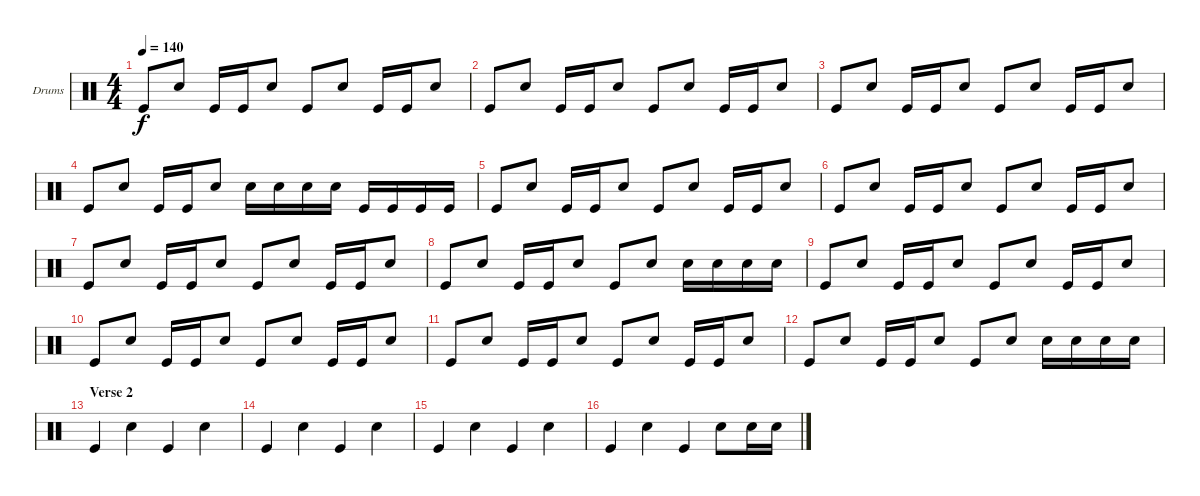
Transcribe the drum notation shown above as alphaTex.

\bracketExtendMode groupsimilarinstruments
\firstSystemTrackNameOrientation horizontal
\otherSystemsTrackNameOrientation horizontal
\track ("Drumkit" "Drums") {instrument percussion}
\staff {score}
\articulation defaults
\ts (4 4)
\tempo 140
\clef neutral
\ks c "Kick (hit)".8{dy f} "Snare (hit) 2".8 "Kick (hit)".16 "Kick (hit)".16 "Snare (hit) 2".8 "Kick (hit)".8 "Snare (hit) 2".8 "Kick (hit)".16 "Kick (hit)".16 "Snare (hit) 2".8
|
"Kick (hit)".8 "Snare (hit) 2".8 "Kick (hit)".16 "Kick (hit)".16 "Snare (hit) 2".8 "Kick (hit)".8 "Snare (hit) 2".8 "Kick (hit)".16 "Kick (hit)".16 "Snare (hit) 2".8 |
"Kick (hit)".8 "Snare (hit) 2".8 "Kick (hit)".16 "Kick (hit)".16 "Snare (hit) 2".8 "Kick (hit)".8 "Snare (hit) 2".8 "Kick (hit)".16 "Kick (hit)".16 "Snare (hit) 2".8 |
"Kick (hit)".8 "Snare (hit) 2".8 "Kick (hit)".16 "Kick (hit)".16 "Snare (hit) 2".8 "Snare (hit) 2".16 "Snare (hit) 2".16 "Snare (hit) 2".16 "Snare (hit) 2".16 "Kick (hit)".16 "Kick (hit)".16 "Kick (hit)".16 "Kick (hit)".16 |
"Kick (hit)".8 "Snare (hit) 2".8 "Kick (hit)".16 "Kick (hit)".16 "Snare (hit) 2".8 "Kick (hit)".8 "Snare (hit) 2".8 "Kick (hit)".16 "Kick (hit)".16 "Snare (hit) 2".8 |
"Kick (hit)".8 "Snare (hit) 2".8 "Kick (hit)".16 "Kick (hit)".16 "Snare (hit) 2".8 "Kick (hit)".8 "Snare (hit) 2".8 "Kick (hit)".16 "Kick (hit)".16 "Snare (hit) 2".8 |
"Kick (hit)".8 "Snare (hit) 2".8 "Kick (hit)".16 "Kick (hit)".16 "Snare (hit) 2".8 "Kick (hit)".8 "Snare (hit) 2".8 "Kick (hit)".16 "Kick (hit)".16 "Snare (hit) 2".8 |
"Kick (hit)".8 "Snare (hit) 2".8 "Kick (hit)".16 "Kick (hit)".16 "Snare (hit) 2".8 "Kick (hit)".8 "Snare (hit) 2".8 "Snare (hit) 2".16 "Snare (hit) 2".16 "Snare (hit) 2".16 "Snare (hit) 2".16 |
"Kick (hit)".8 "Snare (hit) 2".8 "Kick (hit)".16 "Kick (hit)".16 "Snare (hit) 2".8 "Kick (hit)".8 "Snare (hit) 2".8 "Kick (hit)".16 "Kick (hit)".16 "Snare (hit) 2".8 |
"Kick (hit)".8 "Snare (hit) 2".8 "Kick (hit)".16 "Kick (hit)".16 "Snare (hit) 2".8 "Kick (hit)".8 "Snare (hit) 2".8 "Kick (hit)".16 "Kick (hit)".16 "Snare (hit) 2".8 |
"Kick (hit)".8 "Snare (hit) 2".8 "Kick (hit)".16 "Kick (hit)".16 "Snare (hit) 2".8 "Kick (hit)".8 "Snare (hit) 2".8 "Kick (hit)".16 "Kick (hit)".16 "Snare (hit) 2".8 |
"Kick (hit)".8 "Snare (hit) 2".8 "Kick (hit)".16 "Kick (hit)".16 "Snare (hit) 2".8 "Kick (hit)".8 "Snare (hit) 2".8 "Snare (hit) 2".16 "Snare (hit) 2".16 "Snare (hit) 2".16 "Snare (hit) 2".16 |
\section ("" "Verse 2")
"Kick (hit)".4 "Snare (hit) 2".4 "Kick (hit)".4 "Snare (hit) 2".4 |
"Kick (hit)".4 "Snare (hit) 2".4 "Kick (hit)".4 "Snare (hit) 2".4 |
"Kick (hit)".4 "Snare (hit) 2".4 "Kick (hit)".4 "Snare (hit) 2".4 |
"Kick (hit)".4 "Snare (hit) 2".4 "Kick (hit)".4 "Snare (hit) 2".8 "Snare (hit) 2".16 "Snare (hit) 2".16
